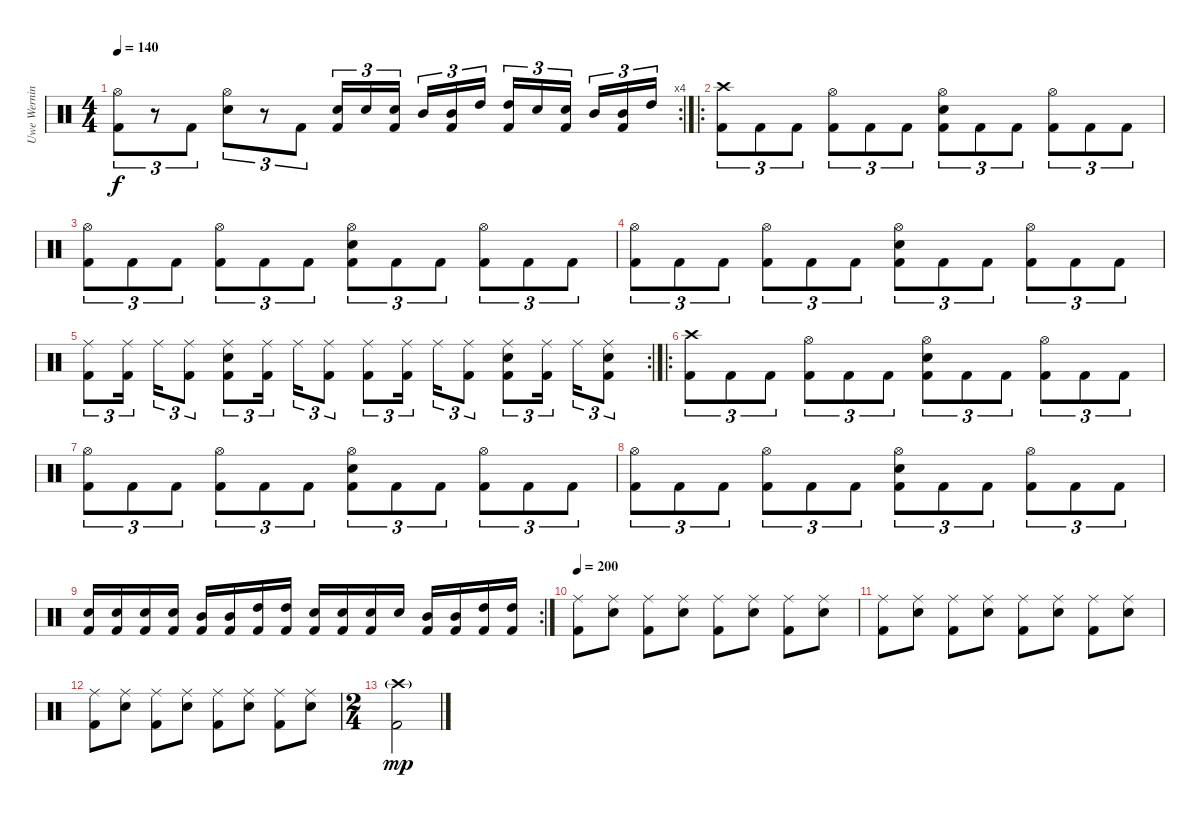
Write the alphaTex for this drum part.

\track ("Uwe Werning" "Uwe Wernin") {instrument percussion}
\staff {score}
\articulation defaults
\rc 4
\ts (4 4)
\tempo 140
\clef neutral
\ks c
("Hi-Hat (open)" "Kick (hit) 2").8{tu (3 2) dy f} r.8{tu (3 2)} "Kick (hit) 2".8{tu (3 2)} ("Hi-Hat (open)" "Electric Snare (hit)").8{tu (3 2)} r.8{tu (3 2)} "Kick (hit) 2".8{tu (3 2)} ("Electric Snare (hit)" "Kick (hit) 2").16{tu (3 2)} "Electric Snare (hit)".16{tu (3 2)} ("Electric Snare (hit)" "Kick (hit) 2").16{tu (3 2)} "Mid Tom (hit)".16{tu (3 2)} ("Mid Tom (hit)" "Kick (hit) 2").16{tu (3 2)} "High Tom (hit)".16{tu (3 2)} ("High Tom (hit)" "Kick (hit) 2").16{tu (3 2)} "Electric Snare (hit)".16{tu (3 2)} ("Electric Snare (hit)" "Kick (hit) 2").16{tu (3 2)} "Mid Tom (hit)".16{tu (3 2)} ("Mid Tom (hit)" "Kick (hit) 2").16{tu (3 2)} "High Tom (hit)".16{tu (3 2)} |
\ro
("Crash high (hit)" "Kick (hit) 2").8{tu (3 2)} "Kick (hit) 2".8{tu (3 2)} "Kick (hit) 2".8{tu (3 2)} ("Hi-Hat (open)" "Kick (hit) 2").8{tu (3 2)} "Kick (hit) 2".8{tu (3 2)} "Kick (hit) 2".8{tu (3 2)} ("Hi-Hat (open)" "Electric Snare (hit)" "Kick (hit) 2").8{tu (3 2)} "Kick (hit) 2".8{tu (3 2)} "Kick (hit) 2".8{tu (3 2)} ("Hi-Hat (open)" "Kick (hit) 2").8{tu (3 2)} "Kick (hit) 2".8{tu (3 2)} "Kick (hit) 2".8{tu (3 2)} |
("Hi-Hat (open)" "Kick (hit) 2").8{tu (3 2)} "Kick (hit) 2".8{tu (3 2)} "Kick (hit) 2".8{tu (3 2)} ("Hi-Hat (open)" "Kick (hit) 2").8{tu (3 2)} "Kick (hit) 2".8{tu (3 2)} "Kick (hit) 2".8{tu (3 2)} ("Hi-Hat (open)" "Electric Snare (hit)" "Kick (hit) 2").8{tu (3 2)} "Kick (hit) 2".8{tu (3 2)} "Kick (hit) 2".8{tu (3 2)} ("Hi-Hat (open)" "Kick (hit) 2").8{tu (3 2)} "Kick (hit) 2".8{tu (3 2)} "Kick (hit) 2".8{tu (3 2)} |
("Hi-Hat (open)" "Kick (hit) 2").8{tu (3 2)} "Kick (hit) 2".8{tu (3 2)} "Kick (hit) 2".8{tu (3 2)} ("Hi-Hat (open)" "Kick (hit) 2").8{tu (3 2)} "Kick (hit) 2".8{tu (3 2)} "Kick (hit) 2".8{tu (3 2)} ("Hi-Hat (open)" "Electric Snare (hit)" "Kick (hit) 2").8{tu (3 2)} "Kick (hit) 2".8{tu (3 2)} "Kick (hit) 2".8{tu (3 2)} ("Hi-Hat (open)" "Kick (hit) 2").8{tu (3 2)} "Kick (hit) 2".8{tu (3 2)} "Kick (hit) 2".8{tu (3 2)} |
\rc 2
("Ride (middle)" "Kick (hit) 2").8{tu (3 2)} ("Ride (middle)" "Kick (hit) 2").16{tu (3 2)} "Ride (middle)".16{tu (3 2)} ("Ride (middle)" "Kick (hit) 2").8{tu (3 2)} ("Ride (middle)" "Electric Snare (hit)" "Kick (hit) 2").8{tu (3 2)} ("Ride (middle)" "Kick (hit) 2").16{tu (3 2)} "Ride (middle)".16{tu (3 2)} ("Ride (middle)" "Kick (hit) 2").8{tu (3 2)} ("Ride (middle)" "Kick (hit) 2").8{tu (3 2)} ("Ride (middle)" "Kick (hit) 2").16{tu (3 2)} "Ride (middle)".16{tu (3 2)} ("Ride (middle)" "Kick (hit) 2").8{tu (3 2)} ("Ride (middle)" "Electric Snare (hit)" "Kick (hit) 2").8{tu (3 2)} ("Ride (middle)" "Kick (hit) 2").16{tu (3 2)} "Ride (middle)".16{tu (3 2)} ("Ride (middle)" "Electric Snare (hit)" "Kick (hit) 2").8{tu (3 2)} |
\ro
("Crash high (hit)" "Kick (hit) 2").8{tu (3 2)} "Kick (hit) 2".8{tu (3 2)} "Kick (hit) 2".8{tu (3 2)} ("Hi-Hat (open)" "Kick (hit) 2").8{tu (3 2)} "Kick (hit) 2".8{tu (3 2)} "Kick (hit) 2".8{tu (3 2)} ("Hi-Hat (open)" "Electric Snare (hit)" "Kick (hit) 2").8{tu (3 2)} "Kick (hit) 2".8{tu (3 2)} "Kick (hit) 2".8{tu (3 2)} ("Hi-Hat (open)" "Kick (hit) 2").8{tu (3 2)} "Kick (hit) 2".8{tu (3 2)} "Kick (hit) 2".8{tu (3 2)} |
("Hi-Hat (open)" "Kick (hit) 2").8{tu (3 2)} "Kick (hit) 2".8{tu (3 2)} "Kick (hit) 2".8{tu (3 2)} ("Hi-Hat (open)" "Kick (hit) 2").8{tu (3 2)} "Kick (hit) 2".8{tu (3 2)} "Kick (hit) 2".8{tu (3 2)} ("Hi-Hat (open)" "Electric Snare (hit)" "Kick (hit) 2").8{tu (3 2)} "Kick (hit) 2".8{tu (3 2)} "Kick (hit) 2".8{tu (3 2)} ("Hi-Hat (open)" "Kick (hit) 2").8{tu (3 2)} "Kick (hit) 2".8{tu (3 2)} "Kick (hit) 2".8{tu (3 2)} |
("Hi-Hat (open)" "Kick (hit) 2").8{tu (3 2)} "Kick (hit) 2".8{tu (3 2)} "Kick (hit) 2".8{tu (3 2)} ("Hi-Hat (open)" "Kick (hit) 2").8{tu (3 2)} "Kick (hit) 2".8{tu (3 2)} "Kick (hit) 2".8{tu (3 2)} ("Hi-Hat (open)" "Electric Snare (hit)" "Kick (hit) 2").8{tu (3 2)} "Kick (hit) 2".8{tu (3 2)} "Kick (hit) 2".8{tu (3 2)} ("Hi-Hat (open)" "Kick (hit) 2").8{tu (3 2)} "Kick (hit) 2".8{tu (3 2)} "Kick (hit) 2".8{tu (3 2)} |
\rc 2
("Electric Snare (hit)" "Kick (hit) 2").16 ("Electric Snare (hit)" "Kick (hit) 2").16 ("Electric Snare (hit)" "Kick (hit) 2").16 ("Electric Snare (hit)" "Kick (hit) 2").16 ("Mid Tom (hit)" "Kick (hit) 2").16 ("Mid Tom (hit)" "Kick (hit) 2").16 ("High Tom (hit)" "Kick (hit) 2").16 ("High Tom (hit)" "Kick (hit) 2").16 ("Electric Snare (hit)" "Kick (hit) 2").16 ("Electric Snare (hit)" "Kick (hit) 2").16 ("Electric Snare (hit)" "Kick (hit) 2").16 "Electric Snare (hit)".16 ("Mid Tom (hit)" "Kick (hit) 2").16 ("Mid Tom (hit)" "Kick (hit) 2").16 ("High Tom (hit)" "Kick (hit) 2").16 ("High Tom (hit)" "Kick (hit) 2").16 |
\tempo 200
("Ride (middle)" "Kick (hit) 2").8 ("Ride (middle)" "Electric Snare (hit)").8 ("Ride (middle)" "Kick (hit) 2").8 ("Ride (middle)" "Electric Snare (hit)").8 ("Ride (middle)" "Kick (hit) 2").8 ("Ride (middle)" "Electric Snare (hit)").8 ("Ride (middle)" "Kick (hit) 2").8 ("Ride (middle)" "Electric Snare (hit)").8 |
("Ride (middle)" "Kick (hit) 2").8 ("Ride (middle)" "Electric Snare (hit)").8 ("Ride (middle)" "Kick (hit) 2").8 ("Ride (middle)" "Electric Snare (hit)").8 ("Ride (middle)" "Kick (hit) 2").8 ("Ride (middle)" "Electric Snare (hit)").8 ("Ride (middle)" "Kick (hit) 2").8 ("Ride (middle)" "Electric Snare (hit)").8 |
("Ride (middle)" "Kick (hit) 2").8 ("Ride (middle)" "Electric Snare (hit)").8 ("Ride (middle)" "Kick (hit) 2").8 ("Ride (middle)" "Electric Snare (hit)").8 ("Ride (middle)" "Kick (hit) 2").8 ("Ride (middle)" "Electric Snare (hit)").8 ("Ride (middle)" "Kick (hit) 2").8 ("Ride (middle)" "Electric Snare (hit)").8 |
\ts (2 4)
("Crash high (hit)"{g} "Kick (hit) 2").2{dy mp}
